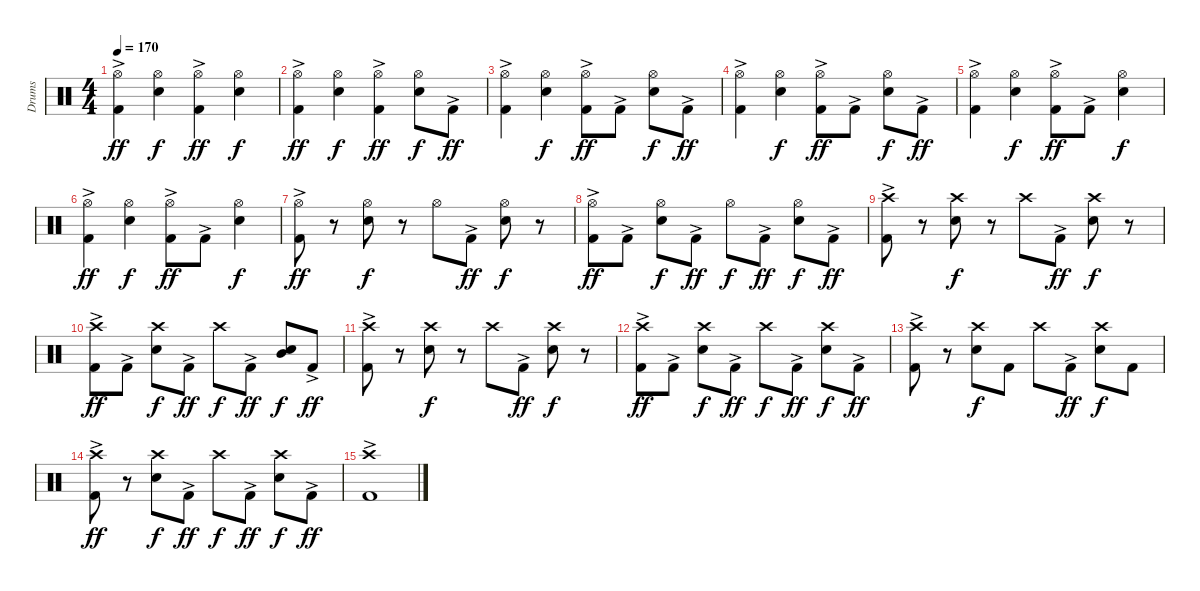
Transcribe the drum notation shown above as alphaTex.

\track ("Drums" "Drums") {instrument percussion}
\staff {score}
\articulation defaults
\ts (4 4)
\tempo 170
\clef neutral
\ks c
("Hi-Hat (open)" "Kick (hit) 2"{ac}).4{dy ff} ("Hi-Hat (open)" "Electric Snare (hit)").4{dy f} ("Hi-Hat (open)" "Kick (hit) 2"{ac}).4{dy ff} ("Hi-Hat (open)" "Electric Snare (hit)").4{dy f} |
("Hi-Hat (open)" "Kick (hit) 2"{ac}).4{dy ff} ("Hi-Hat (open)" "Electric Snare (hit)").4{dy f} ("Hi-Hat (open)" "Kick (hit) 2"{ac}).4{dy ff} ("Hi-Hat (open)" "Electric Snare (hit)").8{dy f} "Kick (hit) 2"{ac}.8{dy ff} |
("Hi-Hat (open)" "Kick (hit) 2"{ac}).4 ("Hi-Hat (open)" "Electric Snare (hit)").4{dy f} ("Hi-Hat (open)" "Kick (hit) 2"{ac}).8{dy ff} "Kick (hit) 2"{ac}.8 ("Hi-Hat (open)" "Electric Snare (hit)").8{dy f} "Kick (hit) 2"{ac}.8{dy ff} |
("Hi-Hat (open)" "Kick (hit) 2"{ac}).4 ("Hi-Hat (open)" "Electric Snare (hit)").4{dy f} ("Hi-Hat (open)" "Kick (hit) 2"{ac}).8{dy ff} "Kick (hit) 2"{ac}.8 ("Hi-Hat (open)" "Electric Snare (hit)").8{dy f} "Kick (hit) 2"{ac}.8{dy ff} |
("Hi-Hat (open)" "Kick (hit) 2"{ac}).4 ("Hi-Hat (open)" "Electric Snare (hit)").4{dy f} ("Hi-Hat (open)" "Kick (hit) 2"{ac}).8{dy ff} "Kick (hit) 2"{ac}.8 ("Hi-Hat (open)" "Electric Snare (hit)").4{dy f} |
("Hi-Hat (open)" "Kick (hit) 2"{ac}).4{dy ff} ("Hi-Hat (open)" "Electric Snare (hit)").4{dy f} ("Hi-Hat (open)" "Kick (hit) 2"{ac}).8{dy ff} "Kick (hit) 2"{ac}.8 ("Hi-Hat (open)" "Electric Snare (hit)").4{dy f} |
("Hi-Hat (open)" "Kick (hit) 2"{ac}).8{dy ff} r.8 ("Hi-Hat (open)" "Electric Snare (hit)").8{dy f} r.8 "Hi-Hat (open)".8 "Kick (hit) 2"{ac}.8{dy ff} ("Hi-Hat (open)" "Electric Snare (hit)").8{dy f} r.8 |
("Hi-Hat (open)" "Kick (hit) 2"{ac}).8{dy ff} "Kick (hit) 2"{ac}.8 ("Hi-Hat (open)" "Electric Snare (hit)").8{dy f} "Kick (hit) 2"{ac}.8{dy ff} "Hi-Hat (open)".8{dy f} "Kick (hit) 2"{ac}.8{dy ff} ("Hi-Hat (open)" "Electric Snare (hit)").8{dy f} "Kick (hit) 2"{ac}.8{dy ff} |
("Crash high (hit)" "Kick (hit) 2"{ac}).8 r.8 ("Crash high (hit)" "Electric Snare (hit)").8{dy f} r.8 "Crash high (hit)".8 "Kick (hit) 2"{ac}.8{dy ff} ("Crash high (hit)" "Electric Snare (hit)").8{dy f} r.8 |
("Crash high (hit)" "Kick (hit) 2"{ac}).8{dy ff} "Kick (hit) 2"{ac}.8 ("Crash high (hit)" "Electric Snare (hit)").8{dy f} "Kick (hit) 2"{ac}.8{dy ff} "Crash high (hit)".8{dy f} "Kick (hit) 2"{ac}.8{dy ff} ("Mid Tom (hit)" "Electric Snare (hit)").8{dy f} "Kick (hit) 2"{ac}.8{dy ff} |
("Crash high (hit)" "Kick (hit) 2"{ac}).8 r.8 ("Crash high (hit)" "Electric Snare (hit)").8{dy f} r.8 "Crash high (hit)".8 "Kick (hit) 2"{ac}.8{dy ff} ("Crash high (hit)" "Electric Snare (hit)").8{dy f} r.8 |
("Crash high (hit)" "Kick (hit) 2"{ac}).8{dy ff} "Kick (hit) 2"{ac}.8 ("Crash high (hit)" "Electric Snare (hit)").8{dy f} "Kick (hit) 2"{ac}.8{dy ff} "Crash high (hit)".8{dy f} "Kick (hit) 2"{ac}.8{dy ff} ("Crash high (hit)" "Electric Snare (hit)").8{dy f} "Kick (hit) 2"{ac}.8{dy ff} |
("Crash high (hit)" "Kick (hit) 2"{ac}).8 r.8 ("Crash high (hit)" "Electric Snare (hit)").8{dy f} "Kick (hit) 2".8 "Crash high (hit)".8 "Kick (hit) 2"{ac}.8{dy ff} ("Crash high (hit)" "Electric Snare (hit)").8{dy f} "Kick (hit) 2".8 |
("Crash high (hit)" "Kick (hit) 2"{ac}).8{dy ff} r.8 ("Crash high (hit)" "Electric Snare (hit)").8{dy f} "Kick (hit) 2"{ac}.8{dy ff} "Crash high (hit)".8{dy f} "Kick (hit) 2"{ac}.8{dy ff} ("Crash high (hit)" "Electric Snare (hit)").8{dy f} "Kick (hit) 2"{ac}.8{dy ff} |
("Crash high (hit)" "Kick (hit) 2"{ac}).1
